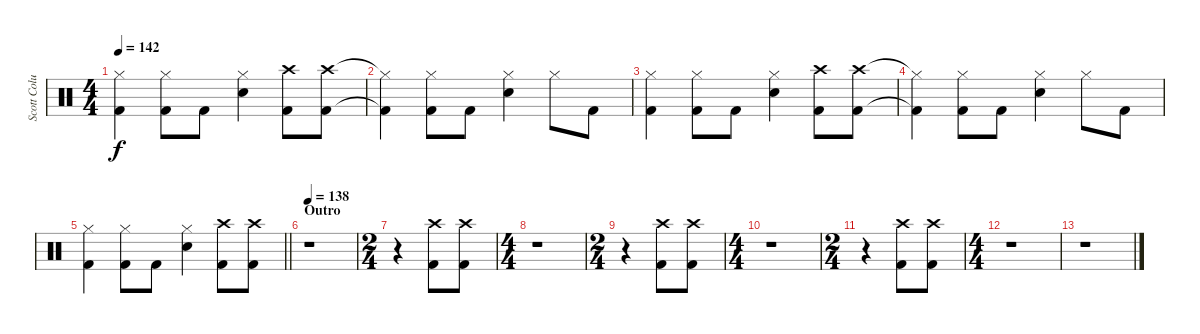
\track ("Scott Columbus" "Scott Colu") {instrument percussion}
\staff {score}
\articulation defaults
\ts (4 4)
\tempo 142
\clef neutral
\ks c
("Hi-Hat (closed)" "Kick (hit) 2").4{dy f} ("Hi-Hat (closed)" "Kick (hit) 2").8 "Kick (hit) 2".8 ("Hi-Hat (closed)" "Snare (hit) 2").4 ("Crash high (hit)" "Kick (hit) 2").8 ("Crash high (hit)" "Kick (hit) 2").8 |
("Hi-Hat (closed)"{t} "Kick (hit) 2"{t}).4 ("Hi-Hat (closed)" "Kick (hit) 2").8 "Kick (hit) 2".8 ("Hi-Hat (closed)" "Snare (hit) 2").4 "Hi-Hat (closed)".8 "Kick (hit) 2".8 |
("Hi-Hat (closed)" "Kick (hit) 2").4 ("Hi-Hat (closed)" "Kick (hit) 2").8 "Kick (hit) 2".8 ("Hi-Hat (closed)" "Snare (hit) 2").4 ("Crash high (hit)" "Kick (hit) 2").8 ("Crash high (hit)" "Kick (hit) 2").8 |
("Hi-Hat (closed)"{t} "Kick (hit) 2"{t}).4 ("Hi-Hat (closed)" "Kick (hit) 2").8 "Kick (hit) 2".8 ("Hi-Hat (closed)" "Snare (hit) 2").4 "Hi-Hat (closed)".8 "Kick (hit) 2".8 |
\barLineRight lightlight
("Hi-Hat (closed)" "Kick (hit) 2").4 ("Hi-Hat (closed)" "Kick (hit) 2").8 "Kick (hit) 2".8 ("Hi-Hat (closed)" "Snare (hit) 2").4 ("Crash high (hit)" "Kick (hit) 2").8 ("Crash high (hit)" "Kick (hit) 2").8 |
\section ("" "Outro")
\tempo 138
r.1 |
\ts (2 4)
r.4 ("Crash high (hit)" "Kick (hit) 2").8 ("Crash high (hit)" "Kick (hit) 2").8 |
\ts (4 4)
r.1 |
\ts (2 4)
r.4 ("Crash high (hit)" "Kick (hit) 2").8 ("Crash high (hit)" "Kick (hit) 2").8 |
\ts (4 4)
r.1 |
\ts (2 4)
r.4 ("Crash high (hit)" "Kick (hit) 2").8 ("Crash high (hit)" "Kick (hit) 2").8 |
\ts (4 4)
r.1 |
r.1
